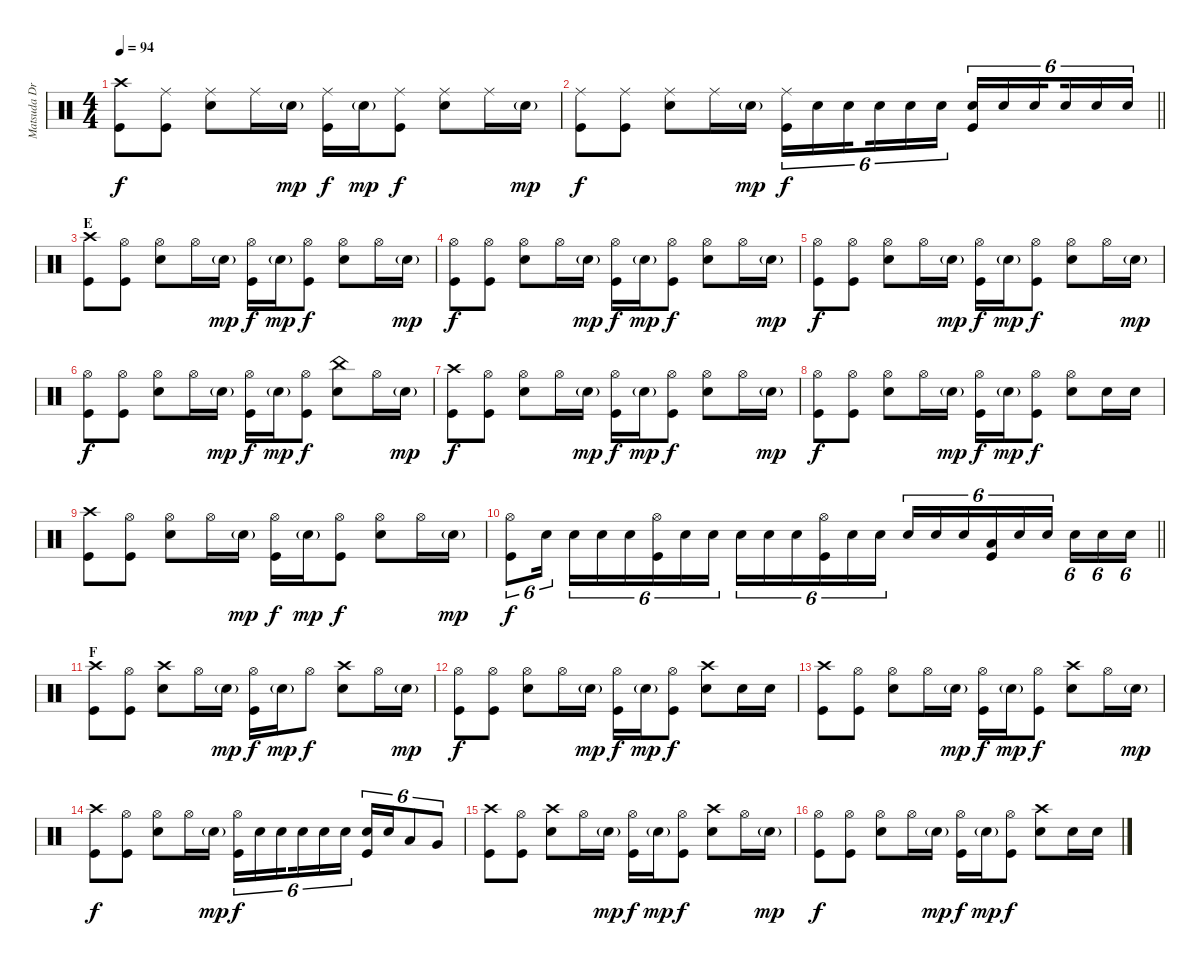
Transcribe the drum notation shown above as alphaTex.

\track ("Matsuda Drums" "Matsuda Dr") {instrument percussion}
\staff {score}
\articulation defaults
\ts (4 4)
\tempo 94
\clef neutral
\ks c
("Crash high (hit)" "Kick (hit)").8{dy f} ("Ride (middle)" "Kick (hit)").8 ("Ride (middle)" "Snare (hit) 2").8 "Ride (middle)".16 "Snare (hit) 2"{g}.16{dy mp} ("Ride (middle)" "Kick (hit)").16{dy f} "Snare (hit) 2"{g}.16{dy mp} ("Ride (middle)" "Kick (hit)").8{dy f} ("Ride (middle)" "Snare (hit) 2").8 "Ride (middle)".16 "Snare (hit) 2"{g}.16{dy mp} |
\barLineRight lightlight
("Ride (middle)" "Kick (hit)").8{dy f} ("Ride (middle)" "Kick (hit)").8 ("Ride (middle)" "Snare (hit) 2").8 "Ride (middle)".16 "Snare (hit) 2"{g}.16{dy mp} ("Ride (middle)" "Kick (hit)").16{tu (6 4) dy f} "Snare (hit) 2".16{tu (6 4)} "Snare (hit) 2".16{tu (6 4) beam splitsecondary} "Snare (hit) 2".16{tu (6 4)} "Snare (hit) 2".16{tu (6 4)} "Snare (hit) 2".16{tu (6 4)} ("Snare (hit) 2" "Kick (hit)").16{tu (6 4)} "Snare (hit) 2".16{tu (6 4)} "Snare (hit) 2".16{tu (6 4) beam splitsecondary} "Snare (hit) 2".16{tu (6 4)} "Snare (hit) 2".16{tu (6 4)} "Snare (hit) 2".16{tu (6 4)} |
\section ("" "E")
("Crash high (hit)" "Kick (hit)").8 ("Hi-Hat (open)" "Kick (hit)").8 ("Hi-Hat (open)" "Snare (hit) 2").8 "Hi-Hat (open)".16 "Snare (hit) 2"{g}.16{dy mp} ("Hi-Hat (open)" "Kick (hit)").16{dy f} "Snare (hit) 2"{g}.16{dy mp} ("Hi-Hat (open)" "Kick (hit)").8{dy f} ("Hi-Hat (open)" "Snare (hit) 2").8 "Hi-Hat (open)".16 "Snare (hit) 2"{g}.16{dy mp} |
("Hi-Hat (open)" "Kick (hit)").8{dy f} ("Hi-Hat (open)" "Kick (hit)").8 ("Hi-Hat (open)" "Snare (hit) 2").8 "Hi-Hat (open)".16 "Snare (hit) 2"{g}.16{dy mp} ("Hi-Hat (open)" "Kick (hit)").16{dy f} "Snare (hit) 2"{g}.16{dy mp} ("Hi-Hat (open)" "Kick (hit)").8{dy f} ("Hi-Hat (open)" "Snare (hit) 2").8 "Hi-Hat (open)".16 "Snare (hit) 2"{g}.16{dy mp} |
("Hi-Hat (open)" "Kick (hit)").8{dy f} ("Hi-Hat (open)" "Kick (hit)").8 ("Hi-Hat (open)" "Snare (hit) 2").8 "Hi-Hat (open)".16 "Snare (hit) 2"{g}.16{dy mp} ("Hi-Hat (open)" "Kick (hit)").16{dy f} "Snare (hit) 2"{g}.16{dy mp} ("Hi-Hat (open)" "Kick (hit)").8{dy f} ("Hi-Hat (open)" "Snare (hit) 2").8 "Hi-Hat (open)".16 "Snare (hit) 2"{g}.16{dy mp} |
("Hi-Hat (open)" "Kick (hit)").8{dy f} ("Hi-Hat (open)" "Kick (hit)").8 ("Hi-Hat (open)" "Snare (hit) 2").8 "Hi-Hat (open)".16 "Snare (hit) 2"{g}.16{dy mp} ("Hi-Hat (open)" "Kick (hit)").16{dy f} "Snare (hit) 2"{g}.16{dy mp} ("Hi-Hat (open)" "Kick (hit)").8{dy f} ("China (hit)" "Snare (hit) 2").8 "Hi-Hat (open)".16 "Snare (hit) 2"{g}.16{dy mp} |
("Crash high (hit)" "Kick (hit)").8{dy f} ("Hi-Hat (open)" "Kick (hit)").8 ("Hi-Hat (open)" "Snare (hit) 2").8 "Hi-Hat (open)".16 "Snare (hit) 2"{g}.16{dy mp} ("Hi-Hat (open)" "Kick (hit)").16{dy f} "Snare (hit) 2"{g}.16{dy mp} ("Hi-Hat (open)" "Kick (hit)").8{dy f} ("Hi-Hat (open)" "Snare (hit) 2").8 "Hi-Hat (open)".16 "Snare (hit) 2"{g}.16{dy mp} |
("Hi-Hat (open)" "Kick (hit)").8{dy f} ("Hi-Hat (open)" "Kick (hit)").8 ("Hi-Hat (open)" "Snare (hit) 2").8 "Hi-Hat (open)".16 "Snare (hit) 2"{g}.16{dy mp} ("Hi-Hat (open)" "Kick (hit)").16{dy f} "Snare (hit) 2"{g}.16{dy mp} ("Hi-Hat (open)" "Kick (hit)").8{dy f} ("Hi-Hat (open)" "Snare (hit) 2").8 "Snare (hit) 2".16 "Snare (hit) 2".16 |
("Crash high (hit)" "Kick (hit)").8 ("Hi-Hat (open)" "Kick (hit)").8 ("Hi-Hat (open)" "Snare (hit) 2").8 "Hi-Hat (open)".16 "Snare (hit) 2"{g}.16{dy mp} ("Hi-Hat (open)" "Kick (hit)").16{dy f} "Snare (hit) 2"{g}.16{dy mp} ("Hi-Hat (open)" "Kick (hit)").8{dy f} ("Hi-Hat (open)" "Snare (hit) 2").8 "Hi-Hat (open)".16 "Snare (hit) 2"{g}.16{dy mp} |
\barLineRight lightlight
("Hi-Hat (open)" "Kick (hit)").8{tu (6 4) dy f} "Snare (hit) 2".16{tu (6 4) beam splitsecondary} "Snare (hit) 2".16{tu (6 4)} "Snare (hit) 2".16{tu (6 4)} "Snare (hit) 2".16{tu (6 4)} ("Hi-Hat (open)" "Kick (hit)").16{tu (6 4)} "Snare (hit) 2".16{tu (6 4)} "Snare (hit) 2".16{tu (6 4) beam splitsecondary} "Snare (hit) 2".16{tu (6 4)} "Snare (hit) 2".16{tu (6 4)} "Snare (hit) 2".16{tu (6 4)} ("Hi-Hat (open)" "Kick (hit)").16{tu (6 4)} "Snare (hit) 2".16{tu (6 4)} "Snare (hit) 2".16{tu (6 4) beam splitsecondary} "Snare (hit) 2".16{tu (6 4)} "Snare (hit) 2".16{tu (6 4)} "Snare (hit) 2".16{tu (6 4)} ("Low Tom (hit)" "Kick (hit)").16{tu (6 4)} "Snare (hit) 2".16{tu (6 4)} "Snare (hit) 2".16{tu (6 4) beam splitsecondary} "Snare (hit) 2".16{tu (6 4)} "Snare (hit) 2".16{tu (6 4)} "Snare (hit) 2".16{tu (6 4)} |
\section ("" "F")
("Crash high (hit)" "Kick (hit)").8 ("Hi-Hat (open)" "Kick (hit)").8 ("Crash high (hit)" "Snare (hit) 2").8 "Hi-Hat (open)".16 "Snare (hit) 2"{g}.16{dy mp} ("Hi-Hat (open)" "Kick (hit)").16{dy f} "Snare (hit) 2"{g}.16{dy mp} "Hi-Hat (open)".8{dy f} ("Crash high (hit)" "Snare (hit) 2").8 "Hi-Hat (open)".16 "Snare (hit) 2"{g}.16{dy mp} |
("Hi-Hat (open)" "Kick (hit)").8{dy f} ("Hi-Hat (open)" "Kick (hit)").8 ("Hi-Hat (open)" "Snare (hit) 2").8 "Hi-Hat (open)".16 "Snare (hit) 2"{g}.16{dy mp} ("Hi-Hat (open)" "Kick (hit)").16{dy f} "Snare (hit) 2"{g}.16{dy mp} ("Hi-Hat (open)" "Kick (hit)").8{dy f} ("Crash high (hit)" "Snare (hit) 2").8 "Snare (hit) 2".16 "Snare (hit) 2".16 |
("Crash high (hit)" "Kick (hit)").8 ("Hi-Hat (open)" "Kick (hit)").8 ("Hi-Hat (open)" "Snare (hit) 2").8 "Hi-Hat (open)".16 "Snare (hit) 2"{g}.16{dy mp} ("Hi-Hat (open)" "Kick (hit)").16{dy f} "Snare (hit) 2"{g}.16{dy mp} ("Hi-Hat (open)" "Kick (hit)").8{dy f} ("Crash high (hit)" "Snare (hit) 2").8 "Hi-Hat (open)".16 "Snare (hit) 2"{g}.16{dy mp} |
("Crash high (hit)" "Kick (hit)").8{dy f} ("Hi-Hat (open)" "Kick (hit)").8 ("Hi-Hat (open)" "Snare (hit) 2").8 "Hi-Hat (open)".16 "Snare (hit) 2"{g}.16{dy mp} ("Hi-Hat (open)" "Kick (hit)").16{tu (6 4) dy f} "Snare (hit) 2".16{tu (6 4)} "Snare (hit) 2".16{tu (6 4) beam splitsecondary} "Snare (hit) 2".16{tu (6 4)} "Snare (hit) 2".16{tu (6 4)} "Snare (hit) 2".16{tu (6 4)} ("Snare (hit) 2" "Kick (hit)").16{tu (6 4)} "Snare (hit) 2".16{tu (6 4)} "Low Tom (hit)".8{tu (6 4)} "Very Low Tom (hit)".8{tu (6 4)} |
("Crash high (hit)" "Kick (hit)").8 ("Hi-Hat (open)" "Kick (hit)").8 ("Crash high (hit)" "Snare (hit) 2").8 "Hi-Hat (open)".16 "Snare (hit) 2"{g}.16{dy mp} ("Hi-Hat (open)" "Kick (hit)").16{dy f} "Snare (hit) 2"{g}.16{dy mp} ("Hi-Hat (open)" "Kick (hit)").8{dy f} ("Crash high (hit)" "Snare (hit) 2").8 "Hi-Hat (open)".16 "Snare (hit) 2"{g}.16{dy mp} |
("Hi-Hat (open)" "Kick (hit)").8{dy f} ("Hi-Hat (open)" "Kick (hit)").8 ("Hi-Hat (open)" "Snare (hit) 2").8 "Hi-Hat (open)".16 "Snare (hit) 2"{g}.16{dy mp} ("Hi-Hat (open)" "Kick (hit)").16{dy f} "Snare (hit) 2"{g}.16{dy mp} ("Hi-Hat (open)" "Kick (hit)").8{dy f} ("Crash high (hit)" "Snare (hit) 2").8 "Snare (hit) 2".16 "Snare (hit) 2".16
